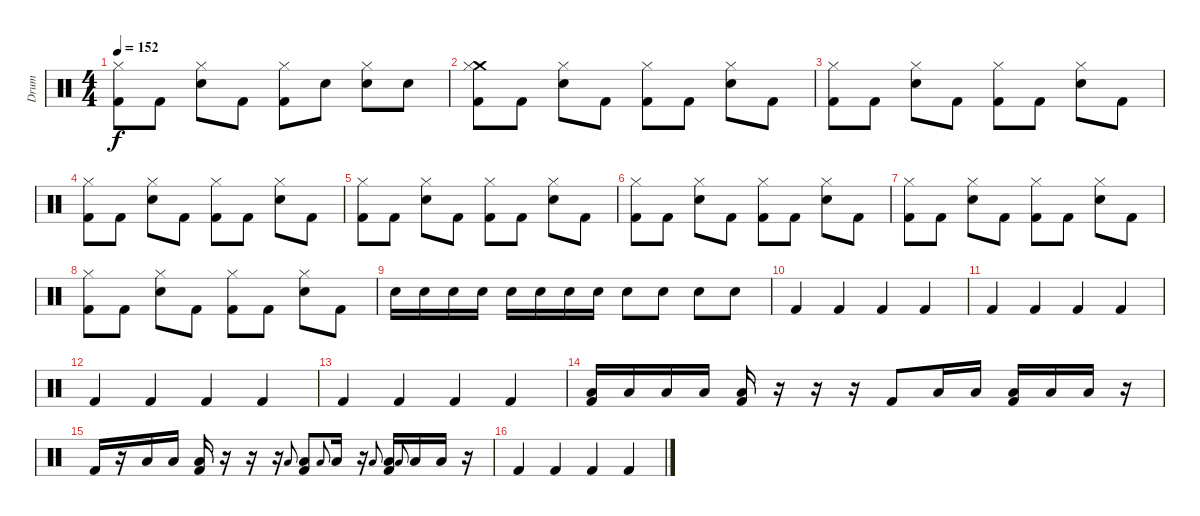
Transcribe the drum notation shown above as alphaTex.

\track ("Drum" "Drum") {instrument percussion}
\staff {score}
\articulation defaults
\ts (4 4)
\tempo 152
\clef neutral
\ks c
("Hi-Hat (closed)" "Kick (hit) 2").8{dy f} "Kick (hit) 2".8 ("Hi-Hat (closed)" "Electric Snare (hit)").8 "Kick (hit) 2".8 ("Hi-Hat (closed)" "Kick (hit) 2").8 "Electric Snare (hit)".8 ("Hi-Hat (closed)" "Electric Snare (hit)").8 "Electric Snare (hit)".8 |
("Crash medium (hit)" "Hi-Hat (closed)" "Kick (hit) 2").8 "Kick (hit) 2".8 ("Hi-Hat (closed)" "Electric Snare (hit)").8 "Kick (hit) 2".8 ("Hi-Hat (closed)" "Kick (hit) 2").8 "Kick (hit) 2".8 ("Hi-Hat (closed)" "Electric Snare (hit)").8 "Kick (hit) 2".8 |
("Hi-Hat (closed)" "Kick (hit) 2").8 "Kick (hit) 2".8 ("Hi-Hat (closed)" "Electric Snare (hit)").8 "Kick (hit) 2".8 ("Hi-Hat (closed)" "Kick (hit) 2").8 "Kick (hit) 2".8 ("Hi-Hat (closed)" "Electric Snare (hit)").8 "Kick (hit) 2".8 |
("Hi-Hat (closed)" "Kick (hit) 2").8 "Kick (hit) 2".8 ("Hi-Hat (closed)" "Electric Snare (hit)").8 "Kick (hit) 2".8 ("Hi-Hat (closed)" "Kick (hit) 2").8 "Kick (hit) 2".8 ("Hi-Hat (closed)" "Electric Snare (hit)").8 "Kick (hit) 2".8 |
("Hi-Hat (closed)" "Kick (hit) 2").8 "Kick (hit) 2".8 ("Hi-Hat (closed)" "Electric Snare (hit)").8 "Kick (hit) 2".8 ("Hi-Hat (closed)" "Kick (hit) 2").8 "Kick (hit) 2".8 ("Hi-Hat (closed)" "Electric Snare (hit)").8 "Kick (hit) 2".8 |
("Hi-Hat (closed)" "Kick (hit) 2").8 "Kick (hit) 2".8 ("Hi-Hat (closed)" "Electric Snare (hit)").8 "Kick (hit) 2".8 ("Hi-Hat (closed)" "Kick (hit) 2").8 "Kick (hit) 2".8 ("Hi-Hat (closed)" "Electric Snare (hit)").8 "Kick (hit) 2".8 |
("Hi-Hat (closed)" "Kick (hit) 2").8 "Kick (hit) 2".8 ("Hi-Hat (closed)" "Electric Snare (hit)").8 "Kick (hit) 2".8 ("Hi-Hat (closed)" "Kick (hit) 2").8 "Kick (hit) 2".8 ("Hi-Hat (closed)" "Electric Snare (hit)").8 "Kick (hit) 2".8 |
("Hi-Hat (closed)" "Kick (hit) 2").8 "Kick (hit) 2".8 ("Hi-Hat (closed)" "Electric Snare (hit)").8 "Kick (hit) 2".8 ("Hi-Hat (closed)" "Kick (hit) 2").8 "Kick (hit) 2".8 ("Hi-Hat (closed)" "Electric Snare (hit)").8 "Kick (hit) 2".8 |
"Electric Snare (hit)".16 "Electric Snare (hit)".16 "Electric Snare (hit)".16 "Electric Snare (hit)".16 "Electric Snare (hit)".16 "Electric Snare (hit)".16 "Electric Snare (hit)".16 "Electric Snare (hit)".16 "Electric Snare (hit)".8 "Electric Snare (hit)".8 "Electric Snare (hit)".8 "Electric Snare (hit)".8 |
"Kick (hit) 2".4 "Kick (hit) 2".4 "Kick (hit) 2".4 "Kick (hit) 2".4 |
"Kick (hit) 2".4 "Kick (hit) 2".4 "Kick (hit) 2".4 "Kick (hit) 2".4 |
"Kick (hit) 2".4 "Kick (hit) 2".4 "Kick (hit) 2".4 "Kick (hit) 2".4 |
"Kick (hit) 2".4 "Kick (hit) 2".4 "Kick (hit) 2".4 "Kick (hit) 2".4 |
("Low Floor Tom (hit)" "Kick (hit) 2").16 "Low Floor Tom (hit)".16 "Low Floor Tom (hit)".16 "Low Floor Tom (hit)".16 ("Low Floor Tom (hit)" "Kick (hit) 2").16 r.16 r.16 r.16 "Kick (hit) 2".8 "Low Floor Tom (hit)".16 "Low Floor Tom (hit)".16 ("Low Floor Tom (hit)" "Kick (hit) 2").16 "Low Floor Tom (hit)".16 "Low Floor Tom (hit)".16 r.16 |
"Kick (hit) 2".16 r.16 "Low Floor Tom (hit)".16 "Low Floor Tom (hit)".16 ("Low Floor Tom (hit)" "Kick (hit) 2").16 r.16 r.16 r.16 "Low Floor Tom (hit)".8{gr onbeat} ("Low Floor Tom (hit)" "Kick (hit) 2").8 "Low Floor Tom (hit)".8{gr onbeat} "Low Floor Tom (hit)".16 r.16 "Low Floor Tom (hit)".8{gr onbeat} ("Low Floor Tom (hit)" "Kick (hit) 2").16 "Low Floor Tom (hit)".8{gr onbeat} "Low Floor Tom (hit)".16 "Low Floor Tom (hit)".16 r.16 |
"Kick (hit) 2".4 "Kick (hit) 2".4 "Kick (hit) 2".4 "Kick (hit) 2".4
